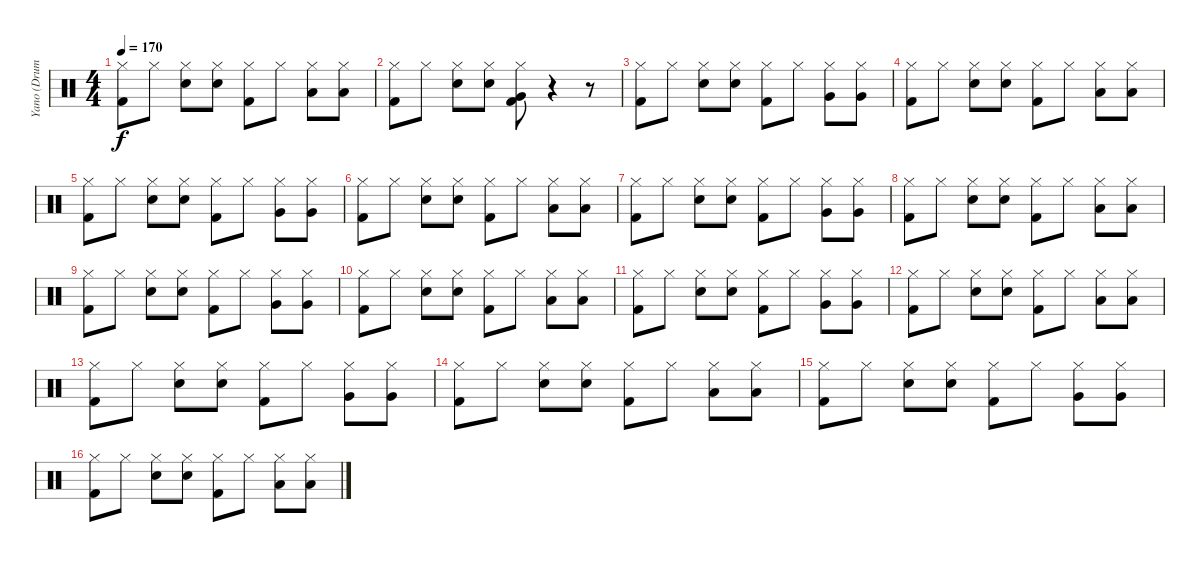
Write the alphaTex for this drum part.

\track ("Yano (Drums)" "Yano (Drum") {instrument percussion}
\staff {score}
\articulation defaults
\ts (4 4)
\tempo 170
\clef neutral
\ks c
("Hi-Hat (closed)" "Kick (hit) 2").8{dy f} "Hi-Hat (closed)".8 ("Hi-Hat (closed)" "Electric Snare (hit)").8 ("Hi-Hat (closed)" "Electric Snare (hit)").8 ("Hi-Hat (closed)" "Kick (hit) 2").8 "Hi-Hat (closed)".8 ("Hi-Hat (closed)" "Low Tom (hit)").8 ("Hi-Hat (closed)" "Low Tom (hit)").8 |
("Hi-Hat (closed)" "Kick (hit) 2").8 "Hi-Hat (closed)".8 ("Hi-Hat (closed)" "Electric Snare (hit)").8 ("Hi-Hat (closed)" "Electric Snare (hit)").8 ("Hi-Hat (closed)" "Very Low Tom (hit)" "Kick (hit) 2").8 r.4 r.8 |
("Hi-Hat (closed)" "Kick (hit) 2").8 "Hi-Hat (closed)".8 ("Hi-Hat (closed)" "Electric Snare (hit)").8 ("Hi-Hat (closed)" "Electric Snare (hit)").8 ("Hi-Hat (closed)" "Kick (hit) 2").8 "Hi-Hat (closed)".8 ("Hi-Hat (closed)" "Very Low Tom (hit)").8 ("Hi-Hat (closed)" "Very Low Tom (hit)").8 |
("Hi-Hat (closed)" "Kick (hit) 2").8 "Hi-Hat (closed)".8 ("Hi-Hat (closed)" "Electric Snare (hit)").8 ("Hi-Hat (closed)" "Electric Snare (hit)").8 ("Hi-Hat (closed)" "Kick (hit) 2").8 "Hi-Hat (closed)".8 ("Hi-Hat (closed)" "Low Tom (hit)").8 ("Hi-Hat (closed)" "Low Tom (hit)").8 |
("Hi-Hat (closed)" "Kick (hit) 2").8 "Hi-Hat (closed)".8 ("Hi-Hat (closed)" "Electric Snare (hit)").8 ("Hi-Hat (closed)" "Electric Snare (hit)").8 ("Hi-Hat (closed)" "Kick (hit) 2").8 "Hi-Hat (closed)".8 ("Hi-Hat (closed)" "Very Low Tom (hit)").8 ("Hi-Hat (closed)" "Very Low Tom (hit)").8 |
("Hi-Hat (closed)" "Kick (hit) 2").8 "Hi-Hat (closed)".8 ("Hi-Hat (closed)" "Electric Snare (hit)").8 ("Hi-Hat (closed)" "Electric Snare (hit)").8 ("Hi-Hat (closed)" "Kick (hit) 2").8 "Hi-Hat (closed)".8 ("Hi-Hat (closed)" "Low Tom (hit)").8 ("Hi-Hat (closed)" "Low Tom (hit)").8 |
("Hi-Hat (closed)" "Kick (hit) 2").8 "Hi-Hat (closed)".8 ("Hi-Hat (closed)" "Electric Snare (hit)").8 ("Hi-Hat (closed)" "Electric Snare (hit)").8 ("Hi-Hat (closed)" "Kick (hit) 2").8 "Hi-Hat (closed)".8 ("Hi-Hat (closed)" "Very Low Tom (hit)").8 ("Hi-Hat (closed)" "Very Low Tom (hit)").8 |
("Hi-Hat (closed)" "Kick (hit) 2").8 "Hi-Hat (closed)".8 ("Hi-Hat (closed)" "Electric Snare (hit)").8 ("Hi-Hat (closed)" "Electric Snare (hit)").8 ("Hi-Hat (closed)" "Kick (hit) 2").8 "Hi-Hat (closed)".8 ("Hi-Hat (closed)" "Low Tom (hit)").8 ("Hi-Hat (closed)" "Low Tom (hit)").8 |
("Hi-Hat (closed)" "Kick (hit) 2").8 "Hi-Hat (closed)".8 ("Hi-Hat (closed)" "Electric Snare (hit)").8 ("Hi-Hat (closed)" "Electric Snare (hit)").8 ("Hi-Hat (closed)" "Kick (hit) 2").8 "Hi-Hat (closed)".8 ("Hi-Hat (closed)" "Very Low Tom (hit)").8 ("Hi-Hat (closed)" "Very Low Tom (hit)").8 |
("Hi-Hat (closed)" "Kick (hit) 2").8 "Hi-Hat (closed)".8 ("Hi-Hat (closed)" "Electric Snare (hit)").8 ("Hi-Hat (closed)" "Electric Snare (hit)").8 ("Hi-Hat (closed)" "Kick (hit) 2").8 "Hi-Hat (closed)".8 ("Hi-Hat (closed)" "Low Tom (hit)").8 ("Hi-Hat (closed)" "Low Tom (hit)").8 |
("Hi-Hat (closed)" "Kick (hit) 2").8 "Hi-Hat (closed)".8 ("Hi-Hat (closed)" "Electric Snare (hit)").8 ("Hi-Hat (closed)" "Electric Snare (hit)").8 ("Hi-Hat (closed)" "Kick (hit) 2").8 "Hi-Hat (closed)".8 ("Hi-Hat (closed)" "Very Low Tom (hit)").8 ("Hi-Hat (closed)" "Very Low Tom (hit)").8 |
("Hi-Hat (closed)" "Kick (hit) 2").8 "Hi-Hat (closed)".8 ("Hi-Hat (closed)" "Electric Snare (hit)").8 ("Hi-Hat (closed)" "Electric Snare (hit)").8 ("Hi-Hat (closed)" "Kick (hit) 2").8 "Hi-Hat (closed)".8 ("Hi-Hat (closed)" "Low Tom (hit)").8 ("Hi-Hat (closed)" "Low Tom (hit)").8 |
("Hi-Hat (closed)" "Kick (hit) 2").8 "Hi-Hat (closed)".8 ("Hi-Hat (closed)" "Electric Snare (hit)").8 ("Hi-Hat (closed)" "Electric Snare (hit)").8 ("Hi-Hat (closed)" "Kick (hit) 2").8 "Hi-Hat (closed)".8 ("Hi-Hat (closed)" "Very Low Tom (hit)").8 ("Hi-Hat (closed)" "Very Low Tom (hit)").8 |
("Hi-Hat (closed)" "Kick (hit) 2").8 "Hi-Hat (closed)".8 ("Hi-Hat (closed)" "Electric Snare (hit)").8 ("Hi-Hat (closed)" "Electric Snare (hit)").8 ("Hi-Hat (closed)" "Kick (hit) 2").8 "Hi-Hat (closed)".8 ("Hi-Hat (closed)" "Low Tom (hit)").8 ("Hi-Hat (closed)" "Low Tom (hit)").8 |
("Hi-Hat (closed)" "Kick (hit) 2").8 "Hi-Hat (closed)".8 ("Hi-Hat (closed)" "Electric Snare (hit)").8 ("Hi-Hat (closed)" "Electric Snare (hit)").8 ("Hi-Hat (closed)" "Kick (hit) 2").8 "Hi-Hat (closed)".8 ("Hi-Hat (closed)" "Very Low Tom (hit)").8 ("Hi-Hat (closed)" "Very Low Tom (hit)").8 |
("Hi-Hat (closed)" "Kick (hit) 2").8 "Hi-Hat (closed)".8 ("Hi-Hat (closed)" "Electric Snare (hit)").8 ("Hi-Hat (closed)" "Electric Snare (hit)").8 ("Hi-Hat (closed)" "Kick (hit) 2").8 "Hi-Hat (closed)".8 ("Hi-Hat (closed)" "Low Tom (hit)").8 ("Hi-Hat (closed)" "Low Tom (hit)").8
